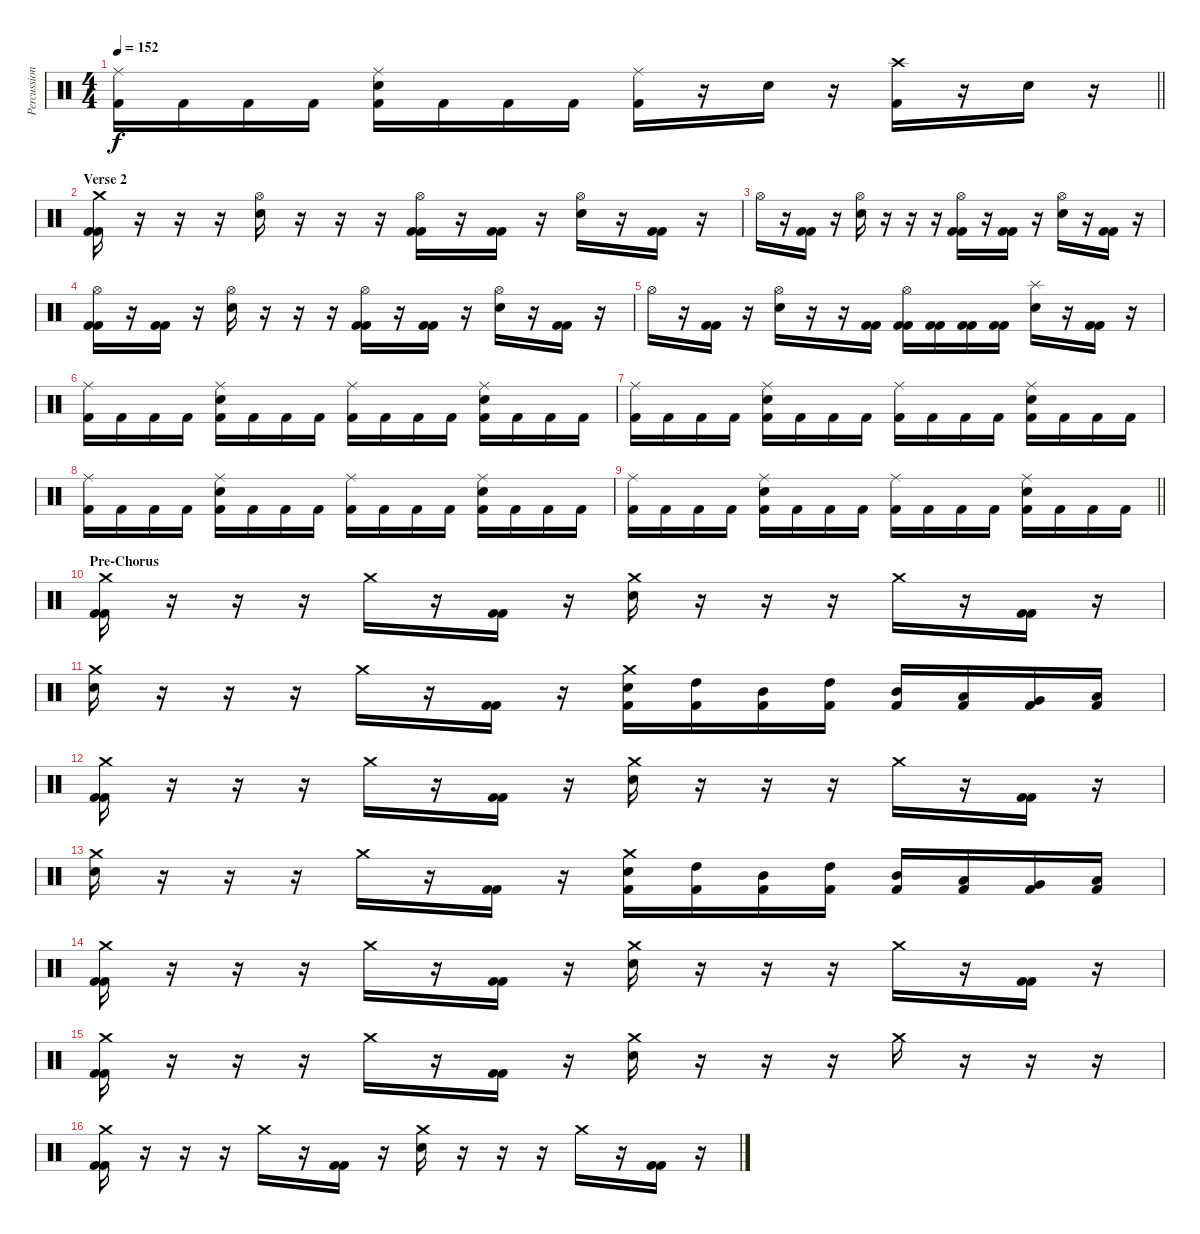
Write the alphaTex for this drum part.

\track ("Percussion" "Percussion") {instrument percussion}
\staff {score}
\articulation defaults
\ts (4 4)
\tempo 152
\clef neutral
\barLineRight lightlight
\ks c
("Ride (middle)" "Kick (hit) 2").16{dy f} "Kick (hit) 2".16 "Kick (hit) 2".16 "Kick (hit) 2".16 ("Ride (middle)" "Snare (hit) 2" "Kick (hit) 2").16 "Kick (hit) 2".16 "Kick (hit) 2".16 "Kick (hit) 2".16 ("Ride (middle)" "Kick (hit) 2").16 r.16 "Snare (hit) 2".16 r.16 ("Crash high (hit)" "Kick (hit) 2").16 r.16 "Snare (hit) 2".16 r.16 |
\section ("" "Verse 2")
("Crash medium (hit)" "Kick (hit) 2" "Kick (hit) 2").16 r.16 r.16 r.16 ("Hi-Hat (open)" "Snare (hit) 2").16 r.16 r.16 r.16 ("Hi-Hat (open)" "Kick (hit) 2" "Kick (hit) 2").16 r.16 ("Kick (hit) 2" "Kick (hit) 2").16 r.16 ("Hi-Hat (open)" "Snare (hit) 2").16 r.16 ("Kick (hit) 2" "Kick (hit) 2").16 r.16 |
"Hi-Hat (open)".16 r.16 ("Kick (hit) 2" "Kick (hit) 2").16 r.16 ("Hi-Hat (open)" "Snare (hit) 2").16 r.16 r.16 r.16 ("Hi-Hat (open)" "Kick (hit) 2" "Kick (hit) 2").16 r.16 ("Kick (hit) 2" "Kick (hit) 2").16 r.16 ("Hi-Hat (open)" "Snare (hit) 2").16 r.16 ("Kick (hit) 2" "Kick (hit) 2").16 r.16 |
("Hi-Hat (open)" "Kick (hit) 2" "Kick (hit) 2").16 r.16 ("Kick (hit) 2" "Kick (hit) 2").16 r.16 ("Hi-Hat (open)" "Snare (hit) 2").16 r.16 r.16 r.16 ("Hi-Hat (open)" "Kick (hit) 2" "Kick (hit) 2").16 r.16 ("Kick (hit) 2" "Kick (hit) 2").16 r.16 ("Hi-Hat (open)" "Snare (hit) 2").16 r.16 ("Kick (hit) 2" "Kick (hit) 2").16 r.16 |
"Hi-Hat (open)".16 r.16 ("Kick (hit) 2" "Kick (hit) 2").16 r.16 ("Hi-Hat (open)" "Snare (hit) 2").16 r.16 r.16 ("Kick (hit) 2" "Kick (hit) 2").16 ("Hi-Hat (open)" "Kick (hit) 2" "Kick (hit) 2").16 ("Kick (hit) 2" "Kick (hit) 2").16 ("Kick (hit) 2" "Kick (hit) 2").16 ("Kick (hit) 2" "Kick (hit) 2").16 ("Splash (hit)" "Snare (hit) 2").16 r.16 ("Kick (hit) 2" "Kick (hit) 2").16 r.16 |
("Ride (middle)" "Kick (hit) 2").16 "Kick (hit) 2".16 "Kick (hit) 2".16 "Kick (hit) 2".16 ("Ride (middle)" "Snare (hit) 2" "Kick (hit) 2").16 "Kick (hit) 2".16 "Kick (hit) 2".16 "Kick (hit) 2".16 ("Ride (middle)" "Kick (hit) 2").16 "Kick (hit) 2".16 "Kick (hit) 2".16 "Kick (hit) 2".16 ("Ride (middle)" "Snare (hit) 2" "Kick (hit) 2").16 "Kick (hit) 2".16 "Kick (hit) 2".16 "Kick (hit) 2".16 |
("Ride (middle)" "Kick (hit) 2").16 "Kick (hit) 2".16 "Kick (hit) 2".16 "Kick (hit) 2".16 ("Ride (middle)" "Snare (hit) 2" "Kick (hit) 2").16 "Kick (hit) 2".16 "Kick (hit) 2".16 "Kick (hit) 2".16 ("Ride (middle)" "Kick (hit) 2").16 "Kick (hit) 2".16 "Kick (hit) 2".16 "Kick (hit) 2".16 ("Ride (middle)" "Snare (hit) 2" "Kick (hit) 2").16 "Kick (hit) 2".16 "Kick (hit) 2".16 "Kick (hit) 2".16 |
("Ride (middle)" "Kick (hit) 2").16 "Kick (hit) 2".16 "Kick (hit) 2".16 "Kick (hit) 2".16 ("Ride (middle)" "Snare (hit) 2" "Kick (hit) 2").16 "Kick (hit) 2".16 "Kick (hit) 2".16 "Kick (hit) 2".16 ("Ride (middle)" "Kick (hit) 2").16 "Kick (hit) 2".16 "Kick (hit) 2".16 "Kick (hit) 2".16 ("Ride (middle)" "Snare (hit) 2" "Kick (hit) 2").16 "Kick (hit) 2".16 "Kick (hit) 2".16 "Kick (hit) 2".16 |
\barLineRight lightlight
("Ride (middle)" "Kick (hit) 2").16 "Kick (hit) 2".16 "Kick (hit) 2".16 "Kick (hit) 2".16 ("Ride (middle)" "Snare (hit) 2" "Kick (hit) 2").16 "Kick (hit) 2".16 "Kick (hit) 2".16 "Kick (hit) 2".16 ("Ride (middle)" "Kick (hit) 2").16 "Kick (hit) 2".16 "Kick (hit) 2".16 "Kick (hit) 2".16 ("Ride (middle)" "Snare (hit) 2" "Kick (hit) 2").16 "Kick (hit) 2".16 "Kick (hit) 2".16 "Kick (hit) 2".16 |
\section ("" "Pre-Chorus")
("Crash medium (hit)" "Kick (hit) 2" "Kick (hit) 2").16 r.16 r.16 r.16 "Crash medium (hit)".16 r.16 ("Kick (hit) 2" "Kick (hit) 2").16 r.16 ("Crash medium (hit)" "Snare (hit) 2").16 r.16 r.16 r.16 "Crash medium (hit)".16 r.16 ("Kick (hit) 2" "Kick (hit) 2").16 r.16 |
("Crash medium (hit)" "Snare (hit) 2").16 r.16 r.16 r.16 "Crash medium (hit)".16 r.16 ("Kick (hit) 2" "Kick (hit) 2").16 r.16 ("Crash medium (hit)" "Snare (hit) 2" "Kick (hit) 2").16 ("High Tom (hit)" "Kick (hit) 2").16 ("Mid Tom (hit)" "Kick (hit) 2").16 ("High Tom (hit)" "Kick (hit) 2").16 ("Mid Tom (hit)" "Kick (hit) 2").16 ("Low Tom (hit)" "Kick (hit) 2").16 ("Very Low Tom (hit)" "Kick (hit) 2").16 ("Low Floor Tom (hit)" "Kick (hit) 2").16 |
("Crash medium (hit)" "Kick (hit) 2" "Kick (hit) 2").16 r.16 r.16 r.16 "Crash medium (hit)".16 r.16 ("Kick (hit) 2" "Kick (hit) 2").16 r.16 ("Crash medium (hit)" "Snare (hit) 2").16 r.16 r.16 r.16 "Crash medium (hit)".16 r.16 ("Kick (hit) 2" "Kick (hit) 2").16 r.16 |
("Crash medium (hit)" "Snare (hit) 2").16 r.16 r.16 r.16 "Crash medium (hit)".16 r.16 ("Kick (hit) 2" "Kick (hit) 2").16 r.16 ("Crash medium (hit)" "Snare (hit) 2" "Kick (hit) 2").16 ("High Tom (hit)" "Kick (hit) 2").16 ("Mid Tom (hit)" "Kick (hit) 2").16 ("High Tom (hit)" "Kick (hit) 2").16 ("Mid Tom (hit)" "Kick (hit) 2").16 ("Low Tom (hit)" "Kick (hit) 2").16 ("Very Low Tom (hit)" "Kick (hit) 2").16 ("Low Floor Tom (hit)" "Kick (hit) 2").16 |
("Crash medium (hit)" "Kick (hit) 2" "Kick (hit) 2").16 r.16 r.16 r.16 "Crash medium (hit)".16 r.16 ("Kick (hit) 2" "Kick (hit) 2").16 r.16 ("Crash medium (hit)" "Snare (hit) 2").16 r.16 r.16 r.16 "Crash medium (hit)".16 r.16 ("Kick (hit) 2" "Kick (hit) 2").16 r.16 |
("Crash medium (hit)" "Kick (hit) 2" "Kick (hit) 2").16 r.16 r.16 r.16 "Crash medium (hit)".16 r.16 ("Kick (hit) 2" "Kick (hit) 2").16 r.16 ("Crash medium (hit)" "Snare (hit) 2").16 r.16 r.16 r.16 "Crash medium (hit)".16 r.16 r.16 r.16 |
("Crash medium (hit)" "Kick (hit) 2" "Kick (hit) 2").16 r.16 r.16 r.16 "Crash medium (hit)".16 r.16 ("Kick (hit) 2" "Kick (hit) 2").16 r.16 ("Crash medium (hit)" "Snare (hit) 2").16 r.16 r.16 r.16 "Crash medium (hit)".16 r.16 ("Kick (hit) 2" "Kick (hit) 2").16 r.16
